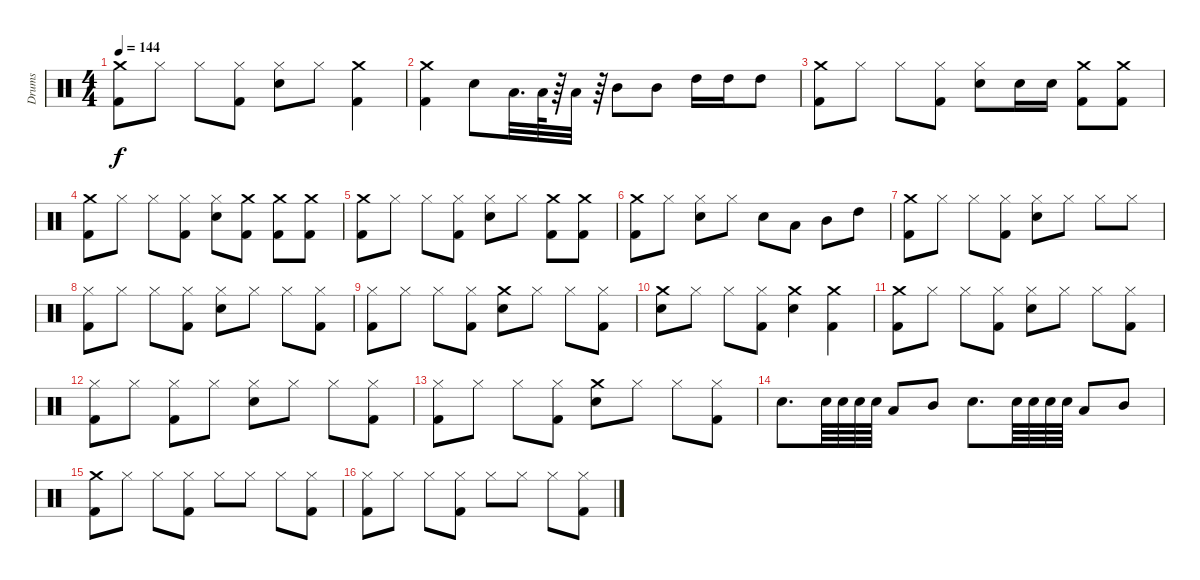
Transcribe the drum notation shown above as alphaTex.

\track ("Drums" "Drums") {instrument percussion}
\staff {score}
\articulation defaults
\ts (4 4)
\tempo 144
\clef neutral
\ks c
("Kick (hit) 2" "Crash medium (hit)").8{dy f} "Hi-Hat (closed)".8 "Hi-Hat (closed)".8 ("Kick (hit) 2" "Hi-Hat (closed)").8 ("Snare (hit) 2" "Hi-Hat (closed)").8 "Hi-Hat (closed)".8 ("Crash medium (hit)" "Kick (hit) 2").4 |
("Kick (hit) 2" "Crash medium (hit)").4 "Snare (hit) 2".8 "Low Tom (hit)".32{d} "Low Tom (hit)".64 r.64 "Low Tom (hit)".32 r.64 "Mid Tom (hit)".8 "Mid Tom (hit)".8 "High Tom (hit)".16 "High Tom (hit)".16 "High Tom (hit)".8 |
("Kick (hit) 2" "Crash medium (hit)").8 "Hi-Hat (closed)".8 "Hi-Hat (closed)".8 ("Kick (hit) 2" "Hi-Hat (closed)").8 ("Snare (hit) 2" "Hi-Hat (closed)").8 "Snare (hit) 2".16 "Snare (hit) 2".16 ("Kick (hit) 2" "Crash medium (hit)").8 ("Kick (hit) 2" "Crash medium (hit)").8 |
("Crash medium (hit)" "Kick (hit) 2").8 "Hi-Hat (closed)".8 "Hi-Hat (closed)".8 ("Kick (hit) 2" "Hi-Hat (closed)").8 ("Snare (hit) 2" "Hi-Hat (closed)").8 ("Kick (hit) 2" "Crash medium (hit)").8 ("Kick (hit) 2" "Crash medium (hit)").8 ("Kick (hit) 2" "Crash medium (hit)").8 |
("Crash medium (hit)" "Kick (hit) 2").8 "Hi-Hat (closed)".8 "Hi-Hat (closed)".8 ("Kick (hit) 2" "Hi-Hat (closed)").8 ("Snare (hit) 2" "Hi-Hat (closed)").8 "Hi-Hat (closed)".8 ("Kick (hit) 2" "Crash medium (hit)").8 ("Kick (hit) 2" "Crash medium (hit)").8 |
("Kick (hit) 2" "Crash medium (hit)").8 "Hi-Hat (closed)".8 ("Snare (hit) 2" "Hi-Hat (closed)").8 "Hi-Hat (closed)".8 "Snare (hit) 2".8 "Low Tom (hit)".8 "Mid Tom (hit)".8 "High Tom (hit)".8 |
("Crash medium (hit)" "Kick (hit) 2").8 "Hi-Hat (closed)".8 "Hi-Hat (closed)".8 ("Kick (hit) 2" "Hi-Hat (closed)").8 ("Snare (hit) 2" "Hi-Hat (closed)").8 "Hi-Hat (closed)".8 "Hi-Hat (closed)".8 "Hi-Hat (closed)".8 |
("Hi-Hat (closed)" "Kick (hit) 2").8 "Hi-Hat (closed)".8 "Hi-Hat (closed)".8 ("Kick (hit) 2" "Hi-Hat (closed)").8 ("Hi-Hat (closed)" "Snare (hit) 2").8 "Hi-Hat (closed)".8 "Hi-Hat (closed)".8 ("Kick (hit) 2" "Hi-Hat (closed)").8 |
("Hi-Hat (closed)" "Kick (hit) 2").8 "Hi-Hat (closed)".8 "Hi-Hat (closed)".8 ("Kick (hit) 2" "Hi-Hat (closed)").8 ("Crash medium (hit)" "Snare (hit) 2").8 "Hi-Hat (closed)".8 "Hi-Hat (closed)".8 ("Kick (hit) 2" "Hi-Hat (closed)").8 |
("Snare (hit) 2" "Crash medium (hit)").8 "Hi-Hat (closed)".8 "Hi-Hat (closed)".8 ("Kick (hit) 2" "Hi-Hat (closed)").8 ("Snare (hit) 2" "Crash medium (hit)").4 ("Crash medium (hit)" "Kick (hit) 2").4 |
("Crash medium (hit)" "Kick (hit) 2").8 "Hi-Hat (closed)".8 "Hi-Hat (closed)".8 ("Kick (hit) 2" "Hi-Hat (closed)").8 ("Snare (hit) 2" "Hi-Hat (closed)").8 "Hi-Hat (closed)".8 "Hi-Hat (closed)".8 ("Kick (hit) 2" "Hi-Hat (closed)").8 |
("Kick (hit) 2" "Hi-Hat (closed)").8 "Hi-Hat (closed)".8 ("Kick (hit) 2" "Hi-Hat (closed)").8 "Hi-Hat (closed)".8 ("Snare (hit) 2" "Hi-Hat (closed)").8 "Hi-Hat (closed)".8 "Hi-Hat (closed)".8 ("Kick (hit) 2" "Hi-Hat (closed)").8 |
("Kick (hit) 2" "Hi-Hat (closed)").8 "Hi-Hat (closed)".8 "Hi-Hat (closed)".8 ("Kick (hit) 2" "Hi-Hat (closed)").8 ("Snare (hit) 2" "Crash medium (hit)").8 "Hi-Hat (closed)".8 "Hi-Hat (closed)".8 ("Kick (hit) 2" "Hi-Hat (closed)").8 |
"Snare (hit) 2".8{d} "Snare (hit) 2".64 "Snare (hit) 2".64 "Snare (hit) 2".64 "Snare (hit) 2".64 "Low Tom (hit)".8 "Mid Tom (hit)".8 "Snare (hit) 2".8{d} "Snare (hit) 2".64 "Snare (hit) 2".64 "Snare (hit) 2".64 "Snare (hit) 2".64 "Low Tom (hit)".8 "Mid Tom (hit)".8 |
("Kick (hit) 2" "Crash medium (hit)").8 "Hi-Hat (closed)".8 "Hi-Hat (closed)".8 ("Kick (hit) 2" "Hi-Hat (closed)").8 "Hi-Hat (closed)".8 "Hi-Hat (closed)".8 "Hi-Hat (closed)".8 ("Kick (hit) 2" "Hi-Hat (closed)").8 |
("Kick (hit) 2" "Hi-Hat (closed)").8 "Hi-Hat (closed)".8 "Hi-Hat (closed)".8 ("Kick (hit) 2" "Hi-Hat (closed)").8 "Hi-Hat (closed)".8 "Hi-Hat (closed)".8 "Hi-Hat (closed)".8 ("Kick (hit) 2" "Hi-Hat (closed)").8
